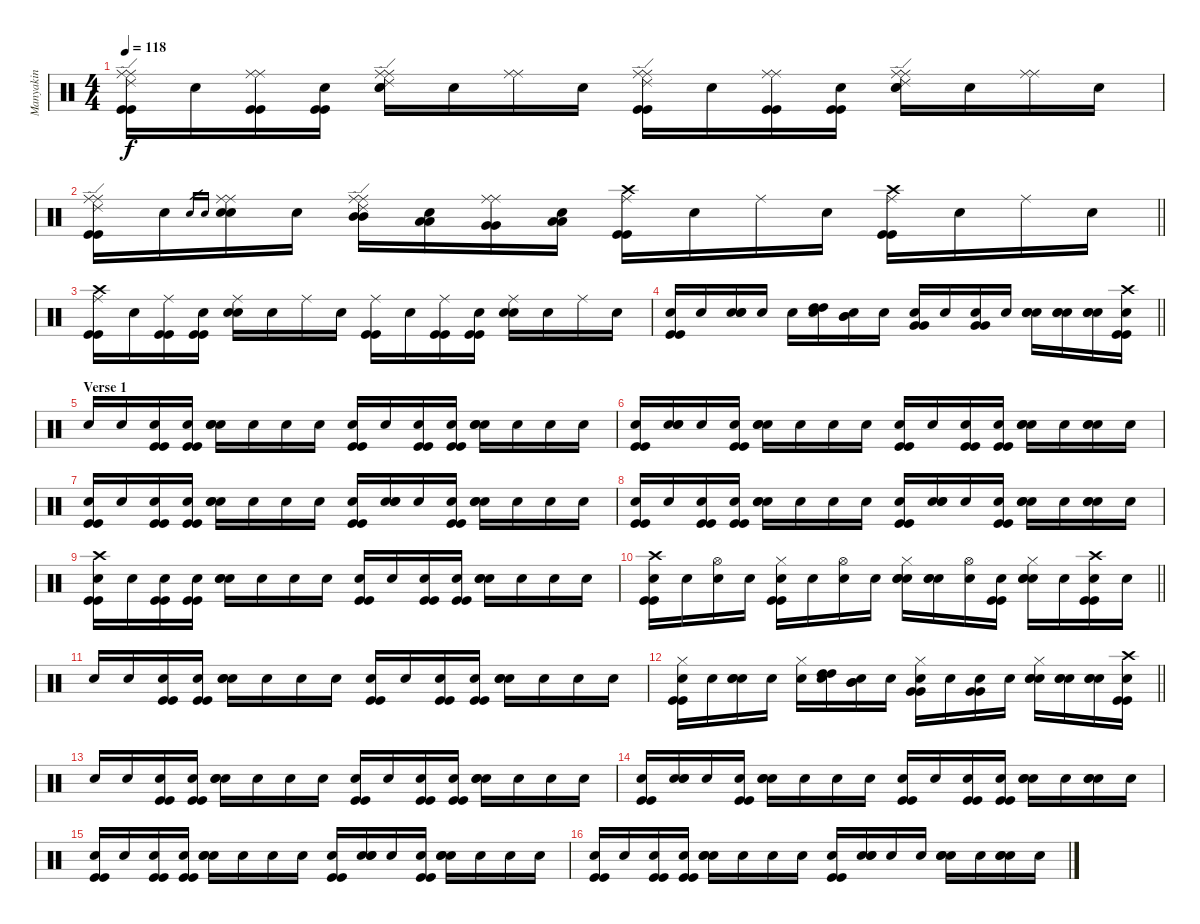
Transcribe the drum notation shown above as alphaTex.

\track ("Manyakin" "Manyakin") {instrument percussion}
\staff {score}
\articulation defaults
\ts (4 4)
\tempo 118
\clef neutral
\ks c
("Ride (middle)" "Ride (edge) 2" "Kick (hit)" "Kick (hit)" "Ride (middle)"{x}).16{dy f} "Snare (hit)"{x}.16 ("Ride (middle)" "Kick (hit)" "Kick (hit)" "Ride (middle)"{x}).16 ("Kick (hit)" "Kick (hit)" "Snare (hit)"{x}).16 ("Ride (middle)" "Ride (edge) 2" "Electric Snare (hit)" "Electric Snare (hit)" "Ride (middle)"{x}).16 "Snare (hit)"{x}.16 ("Ride (middle)" "Ride (middle)"{x}).16 "Snare (hit)"{x}.16 ("Ride (middle)" "Ride (edge) 2" "Kick (hit)" "Kick (hit)" "Ride (middle)"{x}).16 "Snare (hit)"{x}.16 ("Ride (middle)" "Kick (hit)" "Kick (hit)" "Ride (middle)"{x}).16 ("Kick (hit)" "Kick (hit)" "Snare (hit)"{x}).16 ("Ride (middle)" "Ride (edge) 2" "Electric Snare (hit)" "Electric Snare (hit)" "Ride (middle)"{x}).16 "Snare (hit)"{x}.16 ("Ride (middle)" "Ride (middle)"{x}).16 "Snare (hit)"{x}.16 |
\barLineRight lightlight
("Ride (middle)" "Ride (edge) 2" "Kick (hit)" "Kick (hit)" "Ride (middle)"{x}).16 "Snare (hit)"{x}.16 "Electric Snare (hit)".16{gr} "Electric Snare (hit)".16{gr} ("Ride (middle)" "Electric Snare (hit)" "Electric Snare (hit)" "Ride (middle)"{x}).16 "Snare (hit)"{x}.16 ("Ride (middle)" "Ride (edge) 2" "Mid Tom (hit)" "Mid Tom (hit)" "Ride (middle)"{x}).16 ("Low Tom (hit)" "Low Tom (hit)" "Snare (hit)"{x}).16 ("Ride (middle)" "Very Low Tom (hit)" "Very Low Tom (hit)" "Ride (middle)"{x}).16 ("Low Floor Tom (hit)" "Low Floor Tom (hit)" "Snare (hit)"{x}).16 ("Crash high (hit)" "Kick (hit)" "Kick (hit)" "Ride (middle)"{x}).16 "Snare (hit)"{x}.16 "Ride (middle)"{x}.16 "Snare (hit)"{x}.16 ("Crash high (hit)" "Kick (hit)" "Kick (hit)" "Ride (middle)"{x}).16 "Snare (hit)"{x}.16 "Ride (middle)"{x}.16 "Snare (hit)"{x}.16 |
("Crash high (hit)" "Kick (hit)" "Kick (hit)" "Ride (middle)"{x}).16 "Snare (hit)"{x}.16 ("Kick (hit)" "Kick (hit)" "Ride (middle)"{x}).16 ("Kick (hit)" "Kick (hit)" "Snare (hit)"{x}).16 ("Electric Snare (hit)" "Electric Snare (hit)" "Ride (middle)"{x}).16 "Snare (hit)"{x}.16 "Ride (middle)"{x}.16 "Snare (hit)"{x}.16 ("Kick (hit)" "Kick (hit)" "Ride (middle)"{x}).16 "Snare (hit)"{x}.16 ("Kick (hit)" "Kick (hit)" "Ride (middle)"{x}).16 ("Kick (hit)" "Kick (hit)" "Snare (hit)"{x}).16 ("Electric Snare (hit)" "Electric Snare (hit)" "Ride (middle)"{x}).16 "Snare (hit)"{x}.16 "Ride (middle)"{x}.16 "Snare (hit)"{x}.16 |
\barLineRight lightlight
("Kick (hit)" "Kick (hit)" "Snare (hit)"{x}).16 "Snare (hit)"{x}.16 ("Electric Snare (hit)" "Electric Snare (hit)" "Snare (hit)"{x}).16 "Snare (hit)"{x}.16 "Snare (hit)"{x}.16 ("High Tom (hit)" "High Tom (hit)" "Snare (hit)"{x}).16 ("Mid Tom (hit)" "Mid Tom (hit)" "Snare (hit)"{x}).16 "Snare (hit)"{x}.16 ("Very Low Tom (hit)" "Very Low Tom (hit)" "Snare (hit)"{x}).16 "Snare (hit)"{x}.16 ("Very Low Tom (hit)" "Very Low Tom (hit)" "Snare (hit)"{x}).16 "Snare (hit)"{x}.16 ("Electric Snare (hit)" "Electric Snare (hit)" "Snare (hit)"{x}).16 ("Electric Snare (hit)" "Electric Snare (hit)" "Snare (hit)"{x}).16 ("Electric Snare (hit)" "Electric Snare (hit)" "Snare (hit)"{x}).16 ("Crash high (hit)" "Kick (hit)" "Kick (hit)" "Snare (hit)"{x}).16 |
\section ("" "Verse 1")
"Snare (hit)"{x}.16 "Snare (hit)"{x}.16 ("Kick (hit)" "Kick (hit)" "Snare (hit)"{x}).16 ("Kick (hit)" "Kick (hit)" "Snare (hit)"{x}).16 ("Electric Snare (hit)" "Electric Snare (hit)" "Snare (hit)"{x}).16 "Snare (hit)"{x}.16 "Snare (hit)"{x}.16 "Snare (hit)"{x}.16 ("Kick (hit)" "Kick (hit)" "Snare (hit)"{x}).16 "Snare (hit)"{x}.16 ("Kick (hit)" "Kick (hit)" "Snare (hit)"{x}).16 ("Kick (hit)" "Kick (hit)" "Snare (hit)"{x}).16 ("Electric Snare (hit)" "Electric Snare (hit)" "Snare (hit)"{x}).16 "Snare (hit)"{x}.16 "Snare (hit)"{x}.16 "Snare (hit)"{x}.16 |
("Kick (hit)" "Kick (hit)" "Snare (hit)"{x}).16 ("Electric Snare (hit)" "Electric Snare (hit)" "Snare (hit)"{x}).16 "Snare (hit)"{x}.16 ("Kick (hit)" "Kick (hit)" "Snare (hit)"{x}).16 ("Electric Snare (hit)" "Electric Snare (hit)" "Snare (hit)"{x}).16 "Snare (hit)"{x}.16 "Snare (hit)"{x}.16 "Snare (hit)"{x}.16 ("Kick (hit)" "Kick (hit)" "Snare (hit)"{x}).16 "Snare (hit)"{x}.16 ("Kick (hit)" "Kick (hit)" "Snare (hit)"{x}).16 ("Kick (hit)" "Kick (hit)" "Snare (hit)"{x}).16 ("Electric Snare (hit)" "Electric Snare (hit)" "Snare (hit)"{x}).16 "Snare (hit)"{x}.16 ("Electric Snare (hit)" "Electric Snare (hit)" "Snare (hit)"{x}).16 "Snare (hit)"{x}.16 |
("Kick (hit)" "Kick (hit)" "Snare (hit)"{x}).16 "Snare (hit)"{x}.16 ("Kick (hit)" "Kick (hit)" "Snare (hit)"{x}).16 ("Kick (hit)" "Kick (hit)" "Snare (hit)"{x}).16 ("Electric Snare (hit)" "Electric Snare (hit)" "Snare (hit)"{x}).16 "Snare (hit)"{x}.16 "Snare (hit)"{x}.16 "Snare (hit)"{x}.16 ("Kick (hit)" "Kick (hit)" "Snare (hit)"{x}).16 ("Electric Snare (hit)" "Electric Snare (hit)" "Snare (hit)"{x}).16 "Snare (hit)"{x}.16 ("Kick (hit)" "Kick (hit)" "Snare (hit)"{x}).16 ("Electric Snare (hit)" "Electric Snare (hit)" "Snare (hit)"{x}).16 "Snare (hit)"{x}.16 "Snare (hit)"{x}.16 "Snare (hit)"{x}.16 |
("Kick (hit)" "Kick (hit)" "Snare (hit)"{x}).16 "Snare (hit)"{x}.16 ("Kick (hit)" "Kick (hit)" "Snare (hit)"{x}).16 ("Kick (hit)" "Kick (hit)" "Snare (hit)"{x}).16 ("Electric Snare (hit)" "Electric Snare (hit)" "Snare (hit)"{x}).16 "Snare (hit)"{x}.16 "Snare (hit)"{x}.16 "Snare (hit)"{x}.16 ("Kick (hit)" "Kick (hit)" "Snare (hit)"{x}).16 ("Electric Snare (hit)" "Electric Snare (hit)" "Snare (hit)"{x}).16 "Snare (hit)"{x}.16 ("Kick (hit)" "Kick (hit)" "Snare (hit)"{x}).16 ("Electric Snare (hit)" "Electric Snare (hit)" "Snare (hit)"{x}).16 "Snare (hit)"{x}.16 ("Electric Snare (hit)" "Electric Snare (hit)" "Snare (hit)"{x}).16 "Snare (hit)"{x}.16 |
("Crash high (hit)" "Kick (hit)" "Kick (hit)" "Snare (hit)"{x}).16 "Snare (hit)"{x}.16 ("Kick (hit)" "Kick (hit)" "Snare (hit)"{x}).16 ("Kick (hit)" "Kick (hit)" "Snare (hit)"{x}).16 ("Electric Snare (hit)" "Electric Snare (hit)" "Snare (hit)"{x}).16 "Snare (hit)"{x}.16 "Snare (hit)"{x}.16 "Snare (hit)"{x}.16 ("Kick (hit)" "Kick (hit)" "Snare (hit)"{x}).16 "Snare (hit)"{x}.16 ("Kick (hit)" "Kick (hit)" "Snare (hit)"{x}).16 ("Kick (hit)" "Kick (hit)" "Snare (hit)"{x}).16 ("Electric Snare (hit)" "Electric Snare (hit)" "Snare (hit)"{x}).16 "Snare (hit)"{x}.16 "Snare (hit)"{x}.16 "Snare (hit)"{x}.16 |
\barLineRight lightlight
("Crash high (hit)" "Kick (hit)" "Kick (hit)" "Snare (hit)"{x}).16 "Snare (hit)"{x}.16 ("Hi-Hat (open)" "Snare (hit)"{x}).16 "Snare (hit)"{x}.16 ("Hi-Hat (closed)" "Kick (hit)" "Kick (hit)" "Snare (hit)"{x}).16 "Snare (hit)"{x}.16 ("Hi-Hat (open)" "Snare (hit)"{x}).16 "Snare (hit)"{x}.16 ("Hi-Hat (closed)" "Electric Snare (hit)" "Electric Snare (hit)" "Snare (hit)"{x}).16 ("Electric Snare (hit)" "Electric Snare (hit)" "Snare (hit)"{x}).16 ("Hi-Hat (open)" "Snare (hit)"{x}).16 ("Kick (hit)" "Kick (hit)" "Snare (hit)"{x}).16 ("Hi-Hat (closed)" "Electric Snare (hit)" "Electric Snare (hit)" "Snare (hit)"{x}).16 "Snare (hit)"{x}.16 ("Crash high (hit)" "Kick (hit)" "Kick (hit)" "Snare (hit)"{x}).16 "Snare (hit)"{x}.16 |
"Snare (hit)"{x}.16 "Snare (hit)"{x}.16 ("Kick (hit)" "Kick (hit)" "Snare (hit)"{x}).16 ("Kick (hit)" "Kick (hit)" "Snare (hit)"{x}).16 ("Electric Snare (hit)" "Electric Snare (hit)" "Snare (hit)"{x}).16 "Snare (hit)"{x}.16 "Snare (hit)"{x}.16 "Snare (hit)"{x}.16 ("Kick (hit)" "Kick (hit)" "Snare (hit)"{x}).16 "Snare (hit)"{x}.16 ("Kick (hit)" "Kick (hit)" "Snare (hit)"{x}).16 ("Kick (hit)" "Kick (hit)" "Snare (hit)"{x}).16 ("Electric Snare (hit)" "Electric Snare (hit)" "Snare (hit)"{x}).16 "Snare (hit)"{x}.16 "Snare (hit)"{x}.16 "Snare (hit)"{x}.16 |
\barLineRight lightlight
("Hi-Hat (closed)" "Kick (hit)" "Kick (hit)" "Snare (hit)"{x}).16 "Snare (hit)"{x}.16 ("Electric Snare (hit)" "Electric Snare (hit)" "Snare (hit)"{x}).16 "Snare (hit)"{x}.16 ("Hi-Hat (closed)" "Snare (hit)"{x}).16 ("High Tom (hit)" "High Tom (hit)" "Snare (hit)"{x}).16 ("Mid Tom (hit)" "Mid Tom (hit)" "Snare (hit)"{x}).16 "Snare (hit)"{x}.16 ("Hi-Hat (closed)" "Very Low Tom (hit)" "Very Low Tom (hit)" "Snare (hit)"{x}).16 "Snare (hit)"{x}.16 ("Very Low Tom (hit)" "Very Low Tom (hit)" "Snare (hit)"{x}).16 "Snare (hit)"{x}.16 ("Hi-Hat (closed)" "Electric Snare (hit)" "Electric Snare (hit)" "Snare (hit)"{x}).16 ("Electric Snare (hit)" "Electric Snare (hit)" "Snare (hit)"{x}).16 ("Electric Snare (hit)" "Electric Snare (hit)" "Snare (hit)"{x}).16 ("Crash high (hit)" "Kick (hit)" "Kick (hit)" "Snare (hit)"{x}).16 |
"Snare (hit)"{x}.16 "Snare (hit)"{x}.16 ("Kick (hit)" "Kick (hit)" "Snare (hit)"{x}).16 ("Kick (hit)" "Kick (hit)" "Snare (hit)"{x}).16 ("Electric Snare (hit)" "Electric Snare (hit)" "Snare (hit)"{x}).16 "Snare (hit)"{x}.16 "Snare (hit)"{x}.16 "Snare (hit)"{x}.16 ("Kick (hit)" "Kick (hit)" "Snare (hit)"{x}).16 "Snare (hit)"{x}.16 ("Kick (hit)" "Kick (hit)" "Snare (hit)"{x}).16 ("Kick (hit)" "Kick (hit)" "Snare (hit)"{x}).16 ("Electric Snare (hit)" "Electric Snare (hit)" "Snare (hit)"{x}).16 "Snare (hit)"{x}.16 "Snare (hit)"{x}.16 "Snare (hit)"{x}.16 |
("Kick (hit)" "Kick (hit)" "Snare (hit)"{x}).16 ("Electric Snare (hit)" "Electric Snare (hit)" "Snare (hit)"{x}).16 "Snare (hit)"{x}.16 ("Kick (hit)" "Kick (hit)" "Snare (hit)"{x}).16 ("Electric Snare (hit)" "Electric Snare (hit)" "Snare (hit)"{x}).16 "Snare (hit)"{x}.16 "Snare (hit)"{x}.16 "Snare (hit)"{x}.16 ("Kick (hit)" "Kick (hit)" "Snare (hit)"{x}).16 "Snare (hit)"{x}.16 ("Kick (hit)" "Kick (hit)" "Snare (hit)"{x}).16 ("Kick (hit)" "Kick (hit)" "Snare (hit)"{x}).16 ("Electric Snare (hit)" "Electric Snare (hit)" "Snare (hit)"{x}).16 "Snare (hit)"{x}.16 ("Electric Snare (hit)" "Electric Snare (hit)" "Snare (hit)"{x}).16 "Snare (hit)"{x}.16 |
("Kick (hit)" "Kick (hit)" "Snare (hit)"{x}).16 "Snare (hit)"{x}.16 ("Kick (hit)" "Kick (hit)" "Snare (hit)"{x}).16 ("Kick (hit)" "Kick (hit)" "Snare (hit)"{x}).16 ("Electric Snare (hit)" "Electric Snare (hit)" "Snare (hit)"{x}).16 "Snare (hit)"{x}.16 "Snare (hit)"{x}.16 "Snare (hit)"{x}.16 ("Kick (hit)" "Kick (hit)" "Snare (hit)"{x}).16 ("Electric Snare (hit)" "Electric Snare (hit)" "Snare (hit)"{x}).16 "Snare (hit)"{x}.16 ("Kick (hit)" "Kick (hit)" "Snare (hit)"{x}).16 ("Electric Snare (hit)" "Electric Snare (hit)" "Snare (hit)"{x}).16 "Snare (hit)"{x}.16 "Snare (hit)"{x}.16 "Snare (hit)"{x}.16 |
("Kick (hit)" "Kick (hit)" "Snare (hit)"{x}).16 "Snare (hit)"{x}.16 ("Kick (hit)" "Kick (hit)" "Snare (hit)"{x}).16 ("Kick (hit)" "Kick (hit)" "Snare (hit)"{x}).16 ("Electric Snare (hit)" "Electric Snare (hit)" "Snare (hit)"{x}).16 "Snare (hit)"{x}.16 "Snare (hit)"{x}.16 "Snare (hit)"{x}.16 ("Kick (hit)" "Kick (hit)" "Snare (hit)"{x}).16 ("Electric Snare (hit)" "Electric Snare (hit)" "Snare (hit)"{x}).16 "Snare (hit)"{x}.16 "Snare (hit)"{x}.16 ("Electric Snare (hit)" "Electric Snare (hit)" "Snare (hit)"{x}).16 "Snare (hit)"{x}.16 ("Electric Snare (hit)" "Electric Snare (hit)" "Snare (hit)"{x}).16 "Snare (hit)"{x}.16
